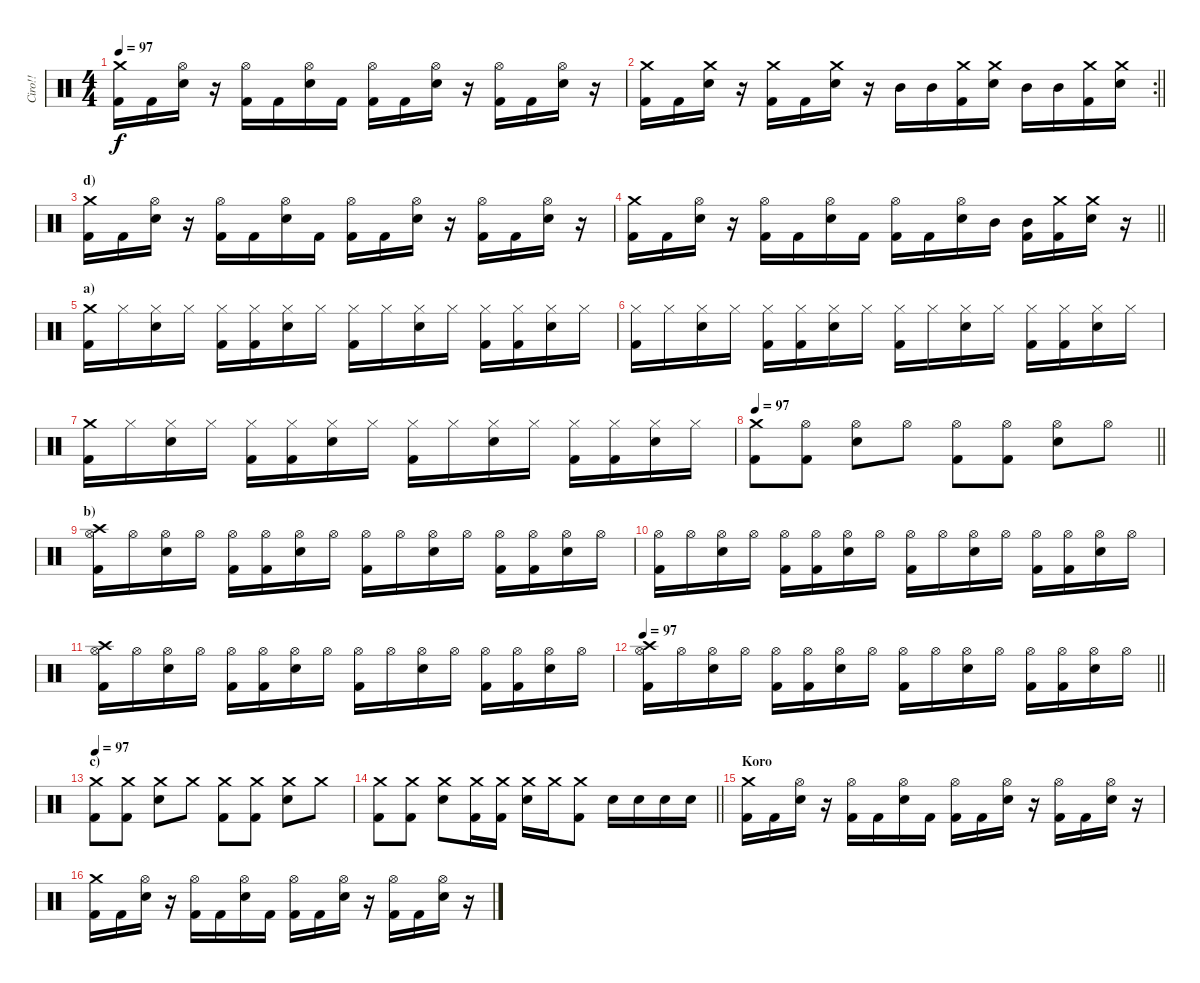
\track ("Ciro!!" "Ciro!!") {instrument percussion}
\staff {score}
\articulation defaults
\ts (4 4)
\tempo 97
\clef neutral
\ks c
("Crash medium (hit)" "Kick (hit) 2").16{dy f} "Kick (hit) 2".16 ("Hi-Hat (open)" "Electric Snare (hit)").16 r.16 ("Hi-Hat (open)" "Kick (hit) 2").16 "Kick (hit) 2".16 ("Hi-Hat (open)" "Electric Snare (hit)").16 "Kick (hit) 2".16 ("Hi-Hat (open)" "Kick (hit) 2").16 "Kick (hit) 2".16 ("Hi-Hat (open)" "Electric Snare (hit)").16 r.16 ("Hi-Hat (open)" "Kick (hit) 2").16 "Kick (hit) 2".16 ("Hi-Hat (open)" "Electric Snare (hit)").16 r.16 |
\rc 2
\barLineRight lightlight
("Crash medium (hit)" "Kick (hit) 2").16 "Kick (hit) 2".16 ("Crash medium (hit)" "Electric Snare (hit)").16 r.16 ("Crash medium (hit)" "Kick (hit) 2").16 "Kick (hit) 2".16 ("Crash medium (hit)" "Electric Snare (hit)").16 r.16 "Mid Tom (hit)".16 "Mid Tom (hit)".16 ("Crash medium (hit)" "Kick (hit) 2").16 ("Crash medium (hit)" "Electric Snare (hit)").16 "Mid Tom (hit)".16 "Mid Tom (hit)".16 ("Crash medium (hit)" "Kick (hit) 2").16 ("Crash medium (hit)" "Electric Snare (hit)").16 |
\section ("" "d)")
("Crash medium (hit)" "Kick (hit) 2").16 "Kick (hit) 2".16 ("Hi-Hat (open)" "Electric Snare (hit)").16 r.16 ("Hi-Hat (open)" "Kick (hit) 2").16 "Kick (hit) 2".16 ("Hi-Hat (open)" "Electric Snare (hit)").16 "Kick (hit) 2".16 ("Hi-Hat (open)" "Kick (hit) 2").16 "Kick (hit) 2".16 ("Hi-Hat (open)" "Electric Snare (hit)").16 r.16 ("Hi-Hat (open)" "Kick (hit) 2").16 "Kick (hit) 2".16 ("Hi-Hat (open)" "Electric Snare (hit)").16 r.16 |
\barLineRight lightlight
("Crash medium (hit)" "Kick (hit) 2").16 "Kick (hit) 2".16 ("Hi-Hat (open)" "Electric Snare (hit)").16 r.16 ("Hi-Hat (open)" "Kick (hit) 2").16 "Kick (hit) 2".16 ("Hi-Hat (open)" "Electric Snare (hit)").16 "Kick (hit) 2".16 ("Hi-Hat (open)" "Kick (hit) 2").16 "Kick (hit) 2".16 ("Hi-Hat (open)" "Electric Snare (hit)").16 "Mid Tom (hit)".16 ("Mid Tom (hit)" "Kick (hit) 2").16 ("Crash medium (hit)" "Kick (hit) 2").16 ("Crash medium (hit)" "Electric Snare (hit)").16 r.16 |
\section ("" "a)")
("Crash medium (hit)" "Kick (hit) 2").16 "Hi-Hat (closed)".16 ("Hi-Hat (closed)" "Electric Snare (hit)").16 "Hi-Hat (closed)".16 ("Hi-Hat (closed)" "Kick (hit) 2").16 ("Hi-Hat (closed)" "Kick (hit) 2").16 ("Hi-Hat (closed)" "Electric Snare (hit)").16 "Hi-Hat (closed)".16 ("Hi-Hat (closed)" "Kick (hit) 2").16 "Hi-Hat (closed)".16 ("Hi-Hat (closed)" "Electric Snare (hit)").16 "Hi-Hat (closed)".16 ("Hi-Hat (closed)" "Kick (hit) 2").16 ("Hi-Hat (closed)" "Kick (hit) 2").16 ("Hi-Hat (closed)" "Electric Snare (hit)").16 "Hi-Hat (closed)".16 |
("Hi-Hat (closed)" "Kick (hit) 2").16 "Hi-Hat (closed)".16 ("Hi-Hat (closed)" "Electric Snare (hit)").16 "Hi-Hat (closed)".16 ("Hi-Hat (closed)" "Kick (hit) 2").16 ("Hi-Hat (closed)" "Kick (hit) 2").16 ("Hi-Hat (closed)" "Electric Snare (hit)").16 "Hi-Hat (closed)".16 ("Hi-Hat (closed)" "Kick (hit) 2").16 "Hi-Hat (closed)".16 ("Hi-Hat (closed)" "Electric Snare (hit)").16 "Hi-Hat (closed)".16 ("Hi-Hat (closed)" "Kick (hit) 2").16 ("Hi-Hat (closed)" "Kick (hit) 2").16 ("Hi-Hat (closed)" "Electric Snare (hit)").16 "Hi-Hat (closed)".16 |
("Crash medium (hit)" "Kick (hit) 2").16 "Hi-Hat (closed)".16 ("Hi-Hat (closed)" "Electric Snare (hit)").16 "Hi-Hat (closed)".16 ("Hi-Hat (closed)" "Kick (hit) 2").16 ("Hi-Hat (closed)" "Kick (hit) 2").16 ("Hi-Hat (closed)" "Electric Snare (hit)").16 "Hi-Hat (closed)".16 ("Hi-Hat (closed)" "Kick (hit) 2").16 "Hi-Hat (closed)".16 ("Hi-Hat (closed)" "Electric Snare (hit)").16 "Hi-Hat (closed)".16 ("Hi-Hat (closed)" "Kick (hit) 2").16 ("Hi-Hat (closed)" "Kick (hit) 2").16 ("Hi-Hat (closed)" "Electric Snare (hit)").16 "Hi-Hat (closed)".16 |
\tempo 97
\barLineRight lightlight
("Crash medium (hit)" "Kick (hit) 2").8 ("Hi-Hat (open)" "Kick (hit) 2").8 ("Hi-Hat (open)" "Electric Snare (hit)").8 "Hi-Hat (open)".8 ("Hi-Hat (open)" "Kick (hit) 2").8 ("Hi-Hat (open)" "Kick (hit) 2").8 ("Hi-Hat (open)" "Electric Snare (hit)").8 "Hi-Hat (open)".8 |
\section ("" "b)")
("Hi-Hat (open)" "Crash high (hit)" "Kick (hit) 2").16 "Hi-Hat (open)".16 ("Hi-Hat (open)" "Electric Snare (hit)").16 "Hi-Hat (open)".16 ("Hi-Hat (open)" "Kick (hit) 2").16 ("Hi-Hat (open)" "Kick (hit) 2").16 ("Hi-Hat (open)" "Electric Snare (hit)").16 "Hi-Hat (open)".16 ("Hi-Hat (open)" "Kick (hit) 2").16 "Hi-Hat (open)".16 ("Hi-Hat (open)" "Electric Snare (hit)").16 "Hi-Hat (open)".16 ("Hi-Hat (open)" "Kick (hit) 2").16 ("Hi-Hat (open)" "Kick (hit) 2").16 ("Hi-Hat (open)" "Electric Snare (hit)").16 "Hi-Hat (open)".16 |
("Hi-Hat (open)" "Kick (hit) 2").16 "Hi-Hat (open)".16 ("Hi-Hat (open)" "Electric Snare (hit)").16 "Hi-Hat (open)".16 ("Hi-Hat (open)" "Kick (hit) 2").16 ("Hi-Hat (open)" "Kick (hit) 2").16 ("Hi-Hat (open)" "Electric Snare (hit)").16 "Hi-Hat (open)".16 ("Hi-Hat (open)" "Kick (hit) 2").16 "Hi-Hat (open)".16 ("Hi-Hat (open)" "Electric Snare (hit)").16 "Hi-Hat (open)".16 ("Hi-Hat (open)" "Kick (hit) 2").16 ("Hi-Hat (open)" "Kick (hit) 2").16 ("Hi-Hat (open)" "Electric Snare (hit)").16 "Hi-Hat (open)".16 |
("Hi-Hat (open)" "Crash high (hit)" "Kick (hit) 2").16 "Hi-Hat (open)".16 ("Hi-Hat (open)" "Electric Snare (hit)").16 "Hi-Hat (open)".16 ("Hi-Hat (open)" "Kick (hit) 2").16 ("Hi-Hat (open)" "Kick (hit) 2").16 ("Hi-Hat (open)" "Electric Snare (hit)").16 "Hi-Hat (open)".16 ("Hi-Hat (open)" "Kick (hit) 2").16 "Hi-Hat (open)".16 ("Hi-Hat (open)" "Electric Snare (hit)").16 "Hi-Hat (open)".16 ("Hi-Hat (open)" "Kick (hit) 2").16 ("Hi-Hat (open)" "Kick (hit) 2").16 ("Hi-Hat (open)" "Electric Snare (hit)").16 "Hi-Hat (open)".16 |
\tempo 97
\barLineRight lightlight
("Hi-Hat (open)" "Crash high (hit)" "Kick (hit) 2").16 "Hi-Hat (open)".16 ("Hi-Hat (open)" "Electric Snare (hit)").16 "Hi-Hat (open)".16 ("Hi-Hat (open)" "Kick (hit) 2").16 ("Hi-Hat (open)" "Kick (hit) 2").16 ("Hi-Hat (open)" "Electric Snare (hit)").16 "Hi-Hat (open)".16 ("Hi-Hat (open)" "Kick (hit) 2").16 "Hi-Hat (open)".16 ("Hi-Hat (open)" "Electric Snare (hit)").16 "Hi-Hat (open)".16 ("Hi-Hat (open)" "Kick (hit) 2").16 ("Hi-Hat (open)" "Kick (hit) 2").16 ("Hi-Hat (open)" "Electric Snare (hit)").16 "Hi-Hat (open)".16 |
\section ("" "c)")
\tempo 97
("Crash medium (hit)" "Kick (hit) 2").8 ("Crash medium (hit)" "Kick (hit) 2").8 ("Crash medium (hit)" "Electric Snare (hit)").8 "Crash medium (hit)".8 ("Crash medium (hit)" "Kick (hit) 2").8 ("Crash medium (hit)" "Kick (hit) 2").8 ("Crash medium (hit)" "Electric Snare (hit)").8 "Crash medium (hit)".8 |
\barLineRight lightlight
("Crash medium (hit)" "Kick (hit) 2").8 ("Crash medium (hit)" "Kick (hit) 2").8 ("Crash medium (hit)" "Electric Snare (hit)").8 ("Crash medium (hit)" "Kick (hit) 2").16 ("Crash medium (hit)" "Kick (hit) 2").16 ("Crash medium (hit)" "Electric Snare (hit)").16 "Crash medium (hit)".16 ("Crash medium (hit)" "Kick (hit) 2").8 "Electric Snare (hit)".16 "Electric Snare (hit)".16 "Electric Snare (hit)".16 "Electric Snare (hit)".16 |
\section ("" "Koro")
("Crash medium (hit)" "Kick (hit) 2").16 "Kick (hit) 2".16 ("Hi-Hat (open)" "Electric Snare (hit)").16 r.16 ("Hi-Hat (open)" "Kick (hit) 2").16 "Kick (hit) 2".16 ("Hi-Hat (open)" "Electric Snare (hit)").16 "Kick (hit) 2".16 ("Hi-Hat (open)" "Kick (hit) 2").16 "Kick (hit) 2".16 ("Hi-Hat (open)" "Electric Snare (hit)").16 r.16 ("Hi-Hat (open)" "Kick (hit) 2").16 "Kick (hit) 2".16 ("Hi-Hat (open)" "Electric Snare (hit)").16 r.16 |
("Crash medium (hit)" "Kick (hit) 2").16 "Kick (hit) 2".16 ("Hi-Hat (open)" "Electric Snare (hit)").16 r.16 ("Hi-Hat (open)" "Kick (hit) 2").16 "Kick (hit) 2".16 ("Hi-Hat (open)" "Electric Snare (hit)").16 "Kick (hit) 2".16 ("Hi-Hat (open)" "Kick (hit) 2").16 "Kick (hit) 2".16 ("Hi-Hat (open)" "Electric Snare (hit)").16 r.16 ("Hi-Hat (open)" "Kick (hit) 2").16 "Kick (hit) 2".16 ("Hi-Hat (open)" "Electric Snare (hit)").16 r.16
